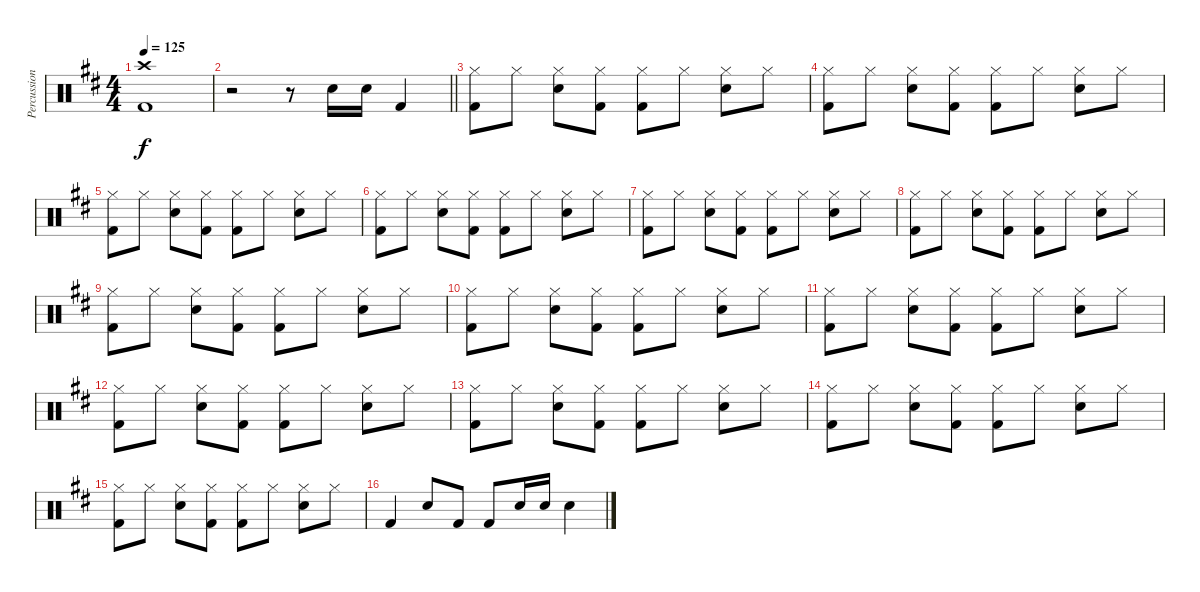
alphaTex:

\track ("Percussion" "Percussion") {instrument percussion}
\staff {score}
\articulation defaults
\ts (4 4)
\tempo 125
\clef neutral
\ks d
("Crash high (hit)" "Kick (hit) 2").1{dy f} |
\barLineRight lightlight
r.2 r.8 "Snare (hit) 2".16 "Snare (hit) 2".16 "Kick (hit) 2".4 |
("Hi-Hat (closed)" "Kick (hit) 2").8 "Hi-Hat (closed)".8 ("Hi-Hat (closed)" "Snare (hit) 2").8 ("Hi-Hat (closed)" "Kick (hit) 2").8 ("Hi-Hat (closed)" "Kick (hit) 2").8 "Hi-Hat (closed)".8 ("Hi-Hat (closed)" "Snare (hit) 2").8 "Hi-Hat (closed)".8 |
("Hi-Hat (closed)" "Kick (hit) 2").8 "Hi-Hat (closed)".8 ("Hi-Hat (closed)" "Snare (hit) 2").8 ("Hi-Hat (closed)" "Kick (hit) 2").8 ("Hi-Hat (closed)" "Kick (hit) 2").8 "Hi-Hat (closed)".8 ("Hi-Hat (closed)" "Snare (hit) 2").8 "Hi-Hat (closed)".8 |
("Hi-Hat (closed)" "Kick (hit) 2").8 "Hi-Hat (closed)".8 ("Hi-Hat (closed)" "Snare (hit) 2").8 ("Hi-Hat (closed)" "Kick (hit) 2").8 ("Hi-Hat (closed)" "Kick (hit) 2").8 "Hi-Hat (closed)".8 ("Hi-Hat (closed)" "Snare (hit) 2").8 "Hi-Hat (closed)".8 |
("Hi-Hat (closed)" "Kick (hit) 2").8 "Hi-Hat (closed)".8 ("Hi-Hat (closed)" "Snare (hit) 2").8 ("Hi-Hat (closed)" "Kick (hit) 2").8 ("Hi-Hat (closed)" "Kick (hit) 2").8 "Hi-Hat (closed)".8 ("Hi-Hat (closed)" "Snare (hit) 2").8 "Hi-Hat (closed)".8 |
("Hi-Hat (closed)" "Kick (hit) 2").8 "Hi-Hat (closed)".8 ("Hi-Hat (closed)" "Snare (hit) 2").8 ("Hi-Hat (closed)" "Kick (hit) 2").8 ("Hi-Hat (closed)" "Kick (hit) 2").8 "Hi-Hat (closed)".8 ("Hi-Hat (closed)" "Snare (hit) 2").8 "Hi-Hat (closed)".8 |
("Hi-Hat (closed)" "Kick (hit) 2").8 "Hi-Hat (closed)".8 ("Hi-Hat (closed)" "Snare (hit) 2").8 ("Hi-Hat (closed)" "Kick (hit) 2").8 ("Hi-Hat (closed)" "Kick (hit) 2").8 "Hi-Hat (closed)".8 ("Hi-Hat (closed)" "Snare (hit) 2").8 "Hi-Hat (closed)".8 |
("Hi-Hat (closed)" "Kick (hit) 2").8 "Hi-Hat (closed)".8 ("Hi-Hat (closed)" "Snare (hit) 2").8 ("Hi-Hat (closed)" "Kick (hit) 2").8 ("Hi-Hat (closed)" "Kick (hit) 2").8 "Hi-Hat (closed)".8 ("Hi-Hat (closed)" "Snare (hit) 2").8 "Hi-Hat (closed)".8 |
("Hi-Hat (closed)" "Kick (hit) 2").8 "Hi-Hat (closed)".8 ("Hi-Hat (closed)" "Snare (hit) 2").8 ("Hi-Hat (closed)" "Kick (hit) 2").8 ("Hi-Hat (closed)" "Kick (hit) 2").8 "Hi-Hat (closed)".8 ("Hi-Hat (closed)" "Snare (hit) 2").8 "Hi-Hat (closed)".8 |
("Hi-Hat (closed)" "Kick (hit) 2").8 "Hi-Hat (closed)".8 ("Hi-Hat (closed)" "Snare (hit) 2").8 ("Hi-Hat (closed)" "Kick (hit) 2").8 ("Hi-Hat (closed)" "Kick (hit) 2").8 "Hi-Hat (closed)".8 ("Hi-Hat (closed)" "Snare (hit) 2").8 "Hi-Hat (closed)".8 |
("Hi-Hat (closed)" "Kick (hit) 2").8 "Hi-Hat (closed)".8 ("Hi-Hat (closed)" "Snare (hit) 2").8 ("Hi-Hat (closed)" "Kick (hit) 2").8 ("Hi-Hat (closed)" "Kick (hit) 2").8 "Hi-Hat (closed)".8 ("Hi-Hat (closed)" "Snare (hit) 2").8 "Hi-Hat (closed)".8 |
("Hi-Hat (closed)" "Kick (hit) 2").8 "Hi-Hat (closed)".8 ("Hi-Hat (closed)" "Snare (hit) 2").8 ("Hi-Hat (closed)" "Kick (hit) 2").8 ("Hi-Hat (closed)" "Kick (hit) 2").8 "Hi-Hat (closed)".8 ("Hi-Hat (closed)" "Snare (hit) 2").8 "Hi-Hat (closed)".8 |
("Hi-Hat (closed)" "Kick (hit) 2").8 "Hi-Hat (closed)".8 ("Hi-Hat (closed)" "Snare (hit) 2").8 ("Hi-Hat (closed)" "Kick (hit) 2").8 ("Hi-Hat (closed)" "Kick (hit) 2").8 "Hi-Hat (closed)".8 ("Hi-Hat (closed)" "Snare (hit) 2").8 "Hi-Hat (closed)".8 |
("Hi-Hat (closed)" "Kick (hit) 2").8 "Hi-Hat (closed)".8 ("Hi-Hat (closed)" "Snare (hit) 2").8 ("Hi-Hat (closed)" "Kick (hit) 2").8 ("Hi-Hat (closed)" "Kick (hit) 2").8 "Hi-Hat (closed)".8 ("Hi-Hat (closed)" "Snare (hit) 2").8 "Hi-Hat (closed)".8 |
"Kick (hit) 2".4 "Snare (hit) 2".8 "Kick (hit) 2".8 "Kick (hit) 2".8 "Snare (hit) 2".16 "Snare (hit) 2".16 "Snare (hit) 2".4
